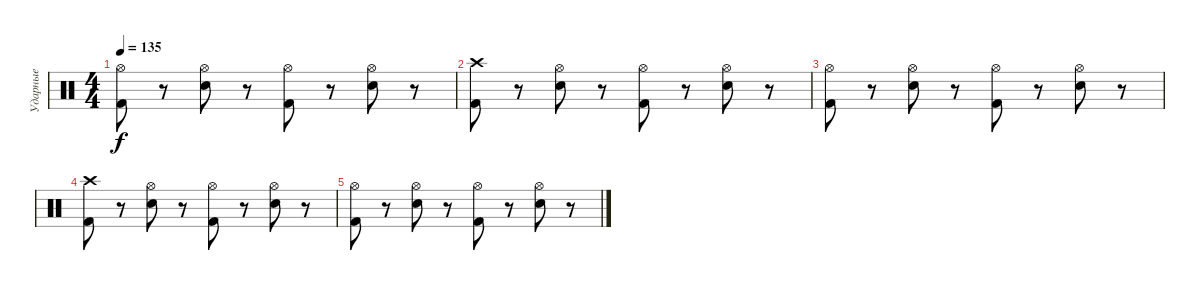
\track ("Ударные" "Ударные") {instrument percussion}
\staff
\articulation defaults
\ts (4 4)
\tempo 135
\clef neutral
\ks c
("Hi-Hat (open)" "Kick (hit) 2").8{dy f} r.8 ("Hi-Hat (open)" "Electric Snare (hit)").8 r.8 ("Hi-Hat (open)" "Kick (hit) 2").8 r.8 ("Hi-Hat (open)" "Electric Snare (hit)").8 r.8 |
("Crash high (hit)" "Kick (hit) 2").8 r.8 ("Hi-Hat (open)" "Electric Snare (hit)").8 r.8 ("Hi-Hat (open)" "Kick (hit) 2").8 r.8 ("Hi-Hat (open)" "Electric Snare (hit)").8 r.8 |
("Hi-Hat (open)" "Kick (hit) 2").8 r.8 ("Hi-Hat (open)" "Electric Snare (hit)").8 r.8 ("Hi-Hat (open)" "Kick (hit) 2").8 r.8 ("Hi-Hat (open)" "Electric Snare (hit)").8 r.8 |
("Crash high (hit)" "Kick (hit) 2").8 r.8 ("Hi-Hat (open)" "Electric Snare (hit)").8 r.8 ("Hi-Hat (open)" "Kick (hit) 2").8 r.8 ("Hi-Hat (open)" "Electric Snare (hit)").8 r.8 |
("Hi-Hat (open)" "Kick (hit) 2").8 r.8 ("Hi-Hat (open)" "Electric Snare (hit)").8 r.8 ("Hi-Hat (open)" "Kick (hit) 2").8 r.8 ("Hi-Hat (open)" "Electric Snare (hit)").8 r.8
